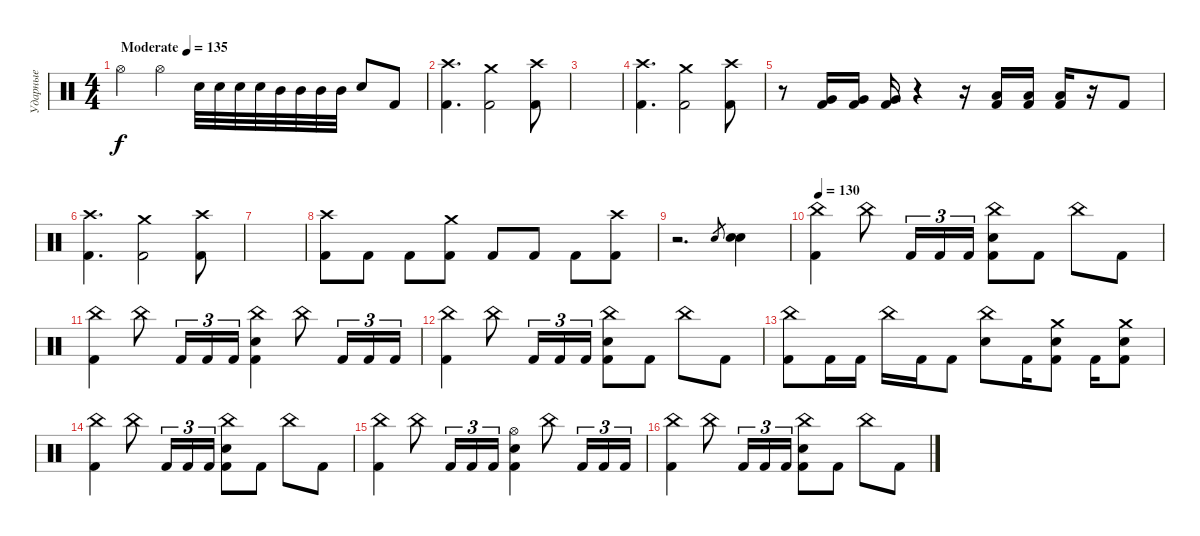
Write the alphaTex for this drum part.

\track ("Ударные" "Ударные") {instrument percussion}
\staff {score}
\articulation defaults
\ts (4 4)
\tempo (135 "Moderate")
\tempo 131
\tempo (135 "Moderate")
\clef neutral
\ks c "Hi-Hat (open)".4{dy f} "Hi-Hat (open)".4 "Electric Snare (hit)".32 "Electric Snare (hit)".32 "Electric Snare (hit)".32 "Electric Snare (hit)".32 "Mid Tom (hit)".32 "Mid Tom (hit)".32 "Mid Tom (hit)".32 "Mid Tom (hit)".32 "Electric Snare (hit)".8 "Kick (hit) 2".8
|
("Crash high (hit)" "Kick (hit) 2").4{d} ("Crash medium (hit)" "Kick (hit) 2").2 ("Crash high (hit)" "Kick (hit) 2").8 |
|
("Crash high (hit)" "Kick (hit) 2").4{d} ("Crash medium (hit)" "Kick (hit) 2").2 ("Crash high (hit)" "Kick (hit) 2").8 |
r.8 ("Very Low Tom (hit)" "Kick (hit) 2").16 ("Very Low Tom (hit)" "Kick (hit) 2").16 ("Very Low Tom (hit)" "Kick (hit) 2").16 r.4 r.16 ("Low Floor Tom (hit)" "Kick (hit) 2").16 ("Low Floor Tom (hit)" "Kick (hit) 2").16 ("Low Floor Tom (hit)" "Kick (hit) 2").16 r.16 "Kick (hit) 2".8 |
("Crash high (hit)" "Kick (hit) 2").4{d} ("Crash medium (hit)" "Kick (hit) 2").2 ("Crash high (hit)" "Kick (hit) 2").8 |
|
("Crash high (hit)" "Kick (hit) 2").8 "Kick (hit) 2".8 "Kick (hit) 2".8 ("Crash medium (hit)" "Kick (hit) 2").8 "Kick (hit) 2".8 "Kick (hit) 2".8 "Kick (hit) 2".8 ("Crash high (hit)" "Kick (hit) 2").8 |
r.2{d} "Electric Snare (hit)"{h}.8{gr} ("Electric Snare (hit)" "Electric Snare (hit)").4 |
\tempo 130
("China (hit)" "Kick (hit) 2").4 "China (hit)".8 "Kick (hit) 2".16{tu (3 2)} "Kick (hit) 2".16{tu (3 2)} "Kick (hit) 2".16{tu (3 2)} ("China (hit)" "Electric Snare (hit)" "Kick (hit) 2").8 "Kick (hit) 2".8 "China (hit)".8 "Kick (hit) 2".8 |
("China (hit)" "Kick (hit) 2").4 "China (hit)".8 "Kick (hit) 2".16{tu (3 2)} "Kick (hit) 2".16{tu (3 2)} "Kick (hit) 2".16{tu (3 2)} ("China (hit)" "Electric Snare (hit)" "Kick (hit) 2").4 "China (hit)".8 "Kick (hit) 2".16{tu (3 2)} "Kick (hit) 2".16{tu (3 2)} "Kick (hit) 2".16{tu (3 2)} |
("China (hit)" "Kick (hit) 2").4 "China (hit)".8 "Kick (hit) 2".16{tu (3 2)} "Kick (hit) 2".16{tu (3 2)} "Kick (hit) 2".16{tu (3 2)} ("China (hit)" "Electric Snare (hit)" "Kick (hit) 2").8 "Kick (hit) 2".8 "China (hit)".8 "Kick (hit) 2".8 |
("China (hit)" "Kick (hit) 2").8 "Kick (hit) 2".16 "Kick (hit) 2".16 "China (hit)".16 "Kick (hit) 2".16 "Kick (hit) 2".8 ("China (hit)" "Electric Snare (hit)").8 "Kick (hit) 2".16 ("Crash medium (hit)" "Electric Snare (hit)" "Kick (hit) 2").8 "Kick (hit) 2".16 ("Crash medium (hit)" "Electric Snare (hit)" "Kick (hit) 2").8 |
("China (hit)" "Kick (hit) 2").4 "China (hit)".8 "Kick (hit) 2".16{tu (3 2)} "Kick (hit) 2".16{tu (3 2)} "Kick (hit) 2".16{tu (3 2)} ("China (hit)" "Electric Snare (hit)" "Kick (hit) 2").8 "Kick (hit) 2".8 "China (hit)".8 "Kick (hit) 2".8 |
("China (hit)" "Kick (hit) 2").4 "China (hit)".8 "Kick (hit) 2".16{tu (3 2)} "Kick (hit) 2".16{tu (3 2)} "Kick (hit) 2".16{tu (3 2)} ("Hi-Hat (open)" "Electric Snare (hit)" "Kick (hit) 2").4 "China (hit)".8 "Kick (hit) 2".16{tu (3 2)} "Kick (hit) 2".16{tu (3 2)} "Kick (hit) 2".16{tu (3 2)} |
("China (hit)" "Kick (hit) 2").4 "China (hit)".8 "Kick (hit) 2".16{tu (3 2)} "Kick (hit) 2".16{tu (3 2)} "Kick (hit) 2".16{tu (3 2)} ("China (hit)" "Electric Snare (hit)" "Kick (hit) 2").8 "Kick (hit) 2".8 "China (hit)".8 "Kick (hit) 2".8
